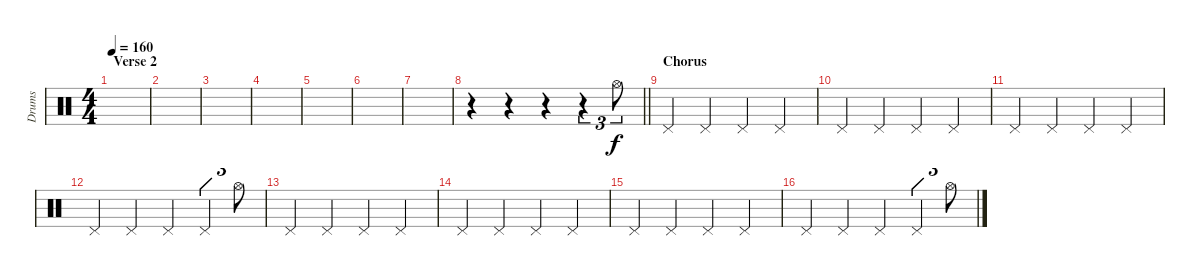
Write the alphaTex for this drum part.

\track ("Drums" "Drums") {instrument percussion}
\staff {score}
\articulation defaults
\ts (4 4)
\section ("" "Verse 2")
\tempo 160
\clef neutral
\ks c
|
|
|
|
|
|
|
\barLineRight lightlight
r.4 r.4 r.4 r.4{tu (3 2)} "Hi-Hat (open)".8{tu (3 2)} |
\section ("" "Chorus")
"Pedal Hi-Hat (hit)".4 "Pedal Hi-Hat (hit)".4 "Pedal Hi-Hat (hit)".4 "Pedal Hi-Hat (hit)".4 |
"Pedal Hi-Hat (hit)".4 "Pedal Hi-Hat (hit)".4 "Pedal Hi-Hat (hit)".4 "Pedal Hi-Hat (hit)".4 |
"Pedal Hi-Hat (hit)".4 "Pedal Hi-Hat (hit)".4 "Pedal Hi-Hat (hit)".4 "Pedal Hi-Hat (hit)".4 |
"Pedal Hi-Hat (hit)".4 "Pedal Hi-Hat (hit)".4 "Pedal Hi-Hat (hit)".4 "Pedal Hi-Hat (hit)".4{tu (3 2)} "Hi-Hat (open)".8{tu (3 2)} |
"Pedal Hi-Hat (hit)".4 "Pedal Hi-Hat (hit)".4 "Pedal Hi-Hat (hit)".4 "Pedal Hi-Hat (hit)".4 |
"Pedal Hi-Hat (hit)".4 "Pedal Hi-Hat (hit)".4 "Pedal Hi-Hat (hit)".4 "Pedal Hi-Hat (hit)".4 |
"Pedal Hi-Hat (hit)".4 "Pedal Hi-Hat (hit)".4 "Pedal Hi-Hat (hit)".4 "Pedal Hi-Hat (hit)".4 |
"Pedal Hi-Hat (hit)".4 "Pedal Hi-Hat (hit)".4 "Pedal Hi-Hat (hit)".4 "Pedal Hi-Hat (hit)".4{tu (3 2)} "Hi-Hat (open)".8{tu (3 2)}
